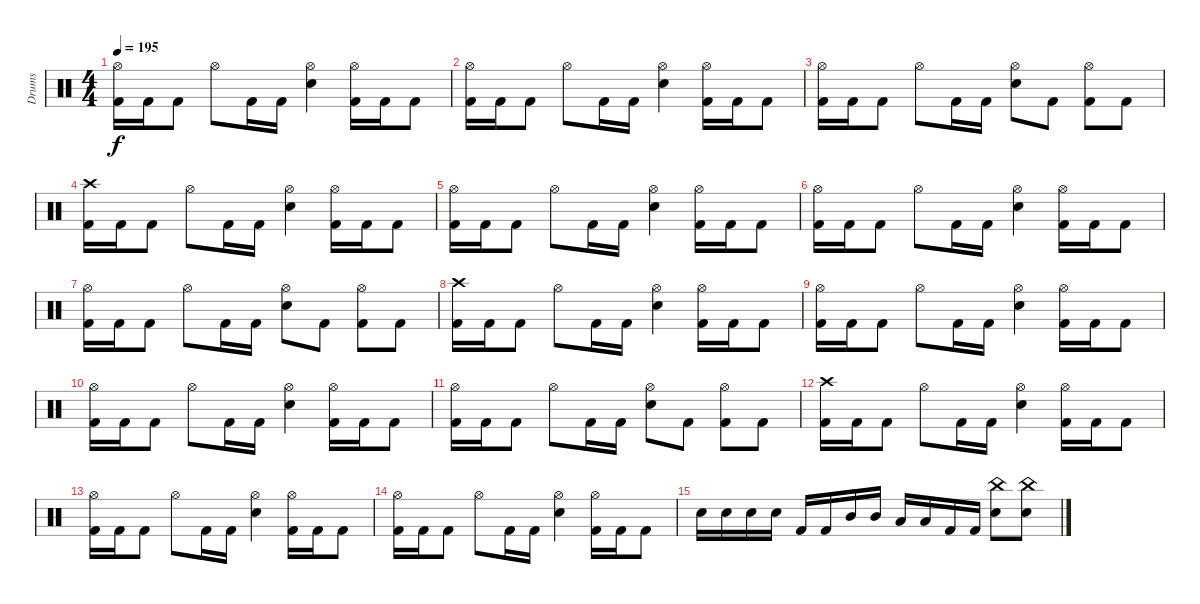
\track ("Drums" "Drums") {instrument percussion}
\staff {score}
\articulation defaults
\ts (4 4)
\tempo 195
\clef neutral
\ks c
("Hi-Hat (open)" "Kick (hit) 2").16{dy f} "Kick (hit) 2".16 "Kick (hit) 2".8 "Hi-Hat (open)".8 "Kick (hit) 2".16 "Kick (hit) 2".16 ("Hi-Hat (open)" "Electric Snare (hit)").4 ("Hi-Hat (open)" "Kick (hit) 2").16 "Kick (hit) 2".16 "Kick (hit) 2".8 |
("Hi-Hat (open)" "Kick (hit) 2").16 "Kick (hit) 2".16 "Kick (hit) 2".8 "Hi-Hat (open)".8 "Kick (hit) 2".16 "Kick (hit) 2".16 ("Hi-Hat (open)" "Electric Snare (hit)").4 ("Hi-Hat (open)" "Kick (hit) 2").16 "Kick (hit) 2".16 "Kick (hit) 2".8 |
("Hi-Hat (open)" "Kick (hit) 2").16 "Kick (hit) 2".16 "Kick (hit) 2".8 "Hi-Hat (open)".8 "Kick (hit) 2".16 "Kick (hit) 2".16 ("Hi-Hat (open)" "Electric Snare (hit)").8 "Kick (hit) 2".8 ("Hi-Hat (open)" "Kick (hit) 2").8 "Kick (hit) 2".8 |
("Crash high (hit)" "Kick (hit) 2").16 "Kick (hit) 2".16 "Kick (hit) 2".8 "Hi-Hat (open)".8 "Kick (hit) 2".16 "Kick (hit) 2".16 ("Hi-Hat (open)" "Electric Snare (hit)").4 ("Hi-Hat (open)" "Kick (hit) 2").16 "Kick (hit) 2".16 "Kick (hit) 2".8 |
("Hi-Hat (open)" "Kick (hit) 2").16 "Kick (hit) 2".16 "Kick (hit) 2".8 "Hi-Hat (open)".8 "Kick (hit) 2".16 "Kick (hit) 2".16 ("Hi-Hat (open)" "Electric Snare (hit)").4 ("Hi-Hat (open)" "Kick (hit) 2").16 "Kick (hit) 2".16 "Kick (hit) 2".8 |
("Hi-Hat (open)" "Kick (hit) 2").16 "Kick (hit) 2".16 "Kick (hit) 2".8 "Hi-Hat (open)".8 "Kick (hit) 2".16 "Kick (hit) 2".16 ("Hi-Hat (open)" "Electric Snare (hit)").4 ("Hi-Hat (open)" "Kick (hit) 2").16 "Kick (hit) 2".16 "Kick (hit) 2".8 |
("Hi-Hat (open)" "Kick (hit) 2").16 "Kick (hit) 2".16 "Kick (hit) 2".8 "Hi-Hat (open)".8 "Kick (hit) 2".16 "Kick (hit) 2".16 ("Hi-Hat (open)" "Electric Snare (hit)").8 "Kick (hit) 2".8 ("Hi-Hat (open)" "Kick (hit) 2").8 "Kick (hit) 2".8 |
("Crash high (hit)" "Kick (hit) 2").16 "Kick (hit) 2".16 "Kick (hit) 2".8 "Hi-Hat (open)".8 "Kick (hit) 2".16 "Kick (hit) 2".16 ("Hi-Hat (open)" "Electric Snare (hit)").4 ("Hi-Hat (open)" "Kick (hit) 2").16 "Kick (hit) 2".16 "Kick (hit) 2".8 |
("Hi-Hat (open)" "Kick (hit) 2").16 "Kick (hit) 2".16 "Kick (hit) 2".8 "Hi-Hat (open)".8 "Kick (hit) 2".16 "Kick (hit) 2".16 ("Hi-Hat (open)" "Electric Snare (hit)").4 ("Hi-Hat (open)" "Kick (hit) 2").16 "Kick (hit) 2".16 "Kick (hit) 2".8 |
("Hi-Hat (open)" "Kick (hit) 2").16 "Kick (hit) 2".16 "Kick (hit) 2".8 "Hi-Hat (open)".8 "Kick (hit) 2".16 "Kick (hit) 2".16 ("Hi-Hat (open)" "Electric Snare (hit)").4 ("Hi-Hat (open)" "Kick (hit) 2").16 "Kick (hit) 2".16 "Kick (hit) 2".8 |
("Hi-Hat (open)" "Kick (hit) 2").16 "Kick (hit) 2".16 "Kick (hit) 2".8 "Hi-Hat (open)".8 "Kick (hit) 2".16 "Kick (hit) 2".16 ("Hi-Hat (open)" "Electric Snare (hit)").8 "Kick (hit) 2".8 ("Hi-Hat (open)" "Kick (hit) 2").8 "Kick (hit) 2".8 |
("Crash high (hit)" "Kick (hit) 2").16 "Kick (hit) 2".16 "Kick (hit) 2".8 "Hi-Hat (open)".8 "Kick (hit) 2".16 "Kick (hit) 2".16 ("Hi-Hat (open)" "Electric Snare (hit)").4 ("Hi-Hat (open)" "Kick (hit) 2").16 "Kick (hit) 2".16 "Kick (hit) 2".8 |
("Hi-Hat (open)" "Kick (hit) 2").16 "Kick (hit) 2".16 "Kick (hit) 2".8 "Hi-Hat (open)".8 "Kick (hit) 2".16 "Kick (hit) 2".16 ("Hi-Hat (open)" "Electric Snare (hit)").4 ("Hi-Hat (open)" "Kick (hit) 2").16 "Kick (hit) 2".16 "Kick (hit) 2".8 |
("Hi-Hat (open)" "Kick (hit) 2").16 "Kick (hit) 2".16 "Kick (hit) 2".8 "Hi-Hat (open)".8 "Kick (hit) 2".16 "Kick (hit) 2".16 ("Hi-Hat (open)" "Electric Snare (hit)").4 ("Hi-Hat (open)" "Kick (hit) 2").16 "Kick (hit) 2".16 "Kick (hit) 2".8 |
"Electric Snare (hit)".16 "Electric Snare (hit)".16 "Electric Snare (hit)".16 "Electric Snare (hit)".16 "Kick (hit) 2".16 "Kick (hit) 2".16 "Mid Tom (hit)".16 "Mid Tom (hit)".16 "Low Tom (hit)".16 "Low Tom (hit)".16 "Kick (hit) 2".16 "Kick (hit) 2".16 ("China (hit)" "Electric Snare (hit)").8 ("China (hit)" "Electric Snare (hit)").8
